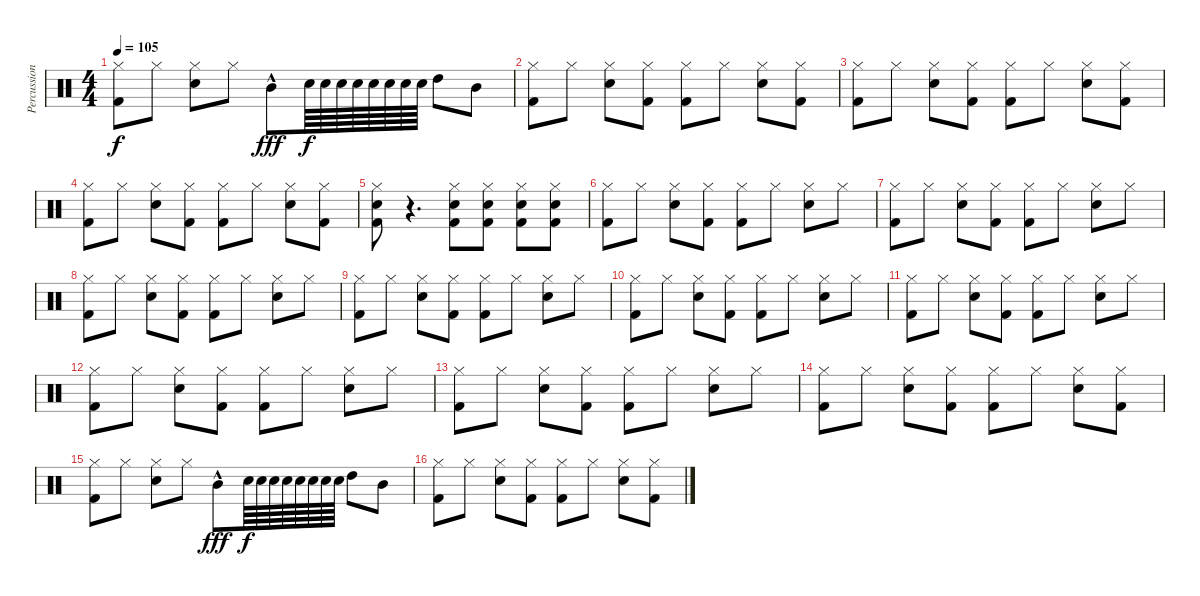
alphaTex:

\track ("Percussion" "Percussion") {instrument percussion}
\staff {score}
\articulation defaults
\ts (4 4)
\tempo 105
\clef neutral
\ks c
("Hi-Hat (closed)" "Kick (hit) 2").8{dy f} "Hi-Hat (closed)".8 ("Hi-Hat (closed)" "Snare (hit) 2").8 "Hi-Hat (closed)".8 "Mid Tom (hit)"{hac}.8{dy fff} "Snare (hit) 2".64{dy f} "Snare (hit) 2".64 "Snare (hit) 2".64 "Snare (hit) 2".64 "Snare (hit) 2".64 "Snare (hit) 2".64 "Snare (hit) 2".64 "Snare (hit) 2".64 "High Tom (hit)".8 "Mid Tom (hit)".8 |
("Hi-Hat (closed)" "Kick (hit) 2").8 "Hi-Hat (closed)".8 ("Hi-Hat (closed)" "Snare (hit) 2").8 ("Hi-Hat (closed)" "Kick (hit) 2").8 ("Hi-Hat (closed)" "Kick (hit) 2").8 "Hi-Hat (closed)".8 ("Hi-Hat (closed)" "Snare (hit) 2").8 ("Hi-Hat (closed)" "Kick (hit) 2").8 |
("Hi-Hat (closed)" "Kick (hit) 2").8 "Hi-Hat (closed)".8 ("Hi-Hat (closed)" "Snare (hit) 2").8 ("Hi-Hat (closed)" "Kick (hit) 2").8 ("Hi-Hat (closed)" "Kick (hit) 2").8 "Hi-Hat (closed)".8 ("Hi-Hat (closed)" "Snare (hit) 2").8 ("Hi-Hat (closed)" "Kick (hit) 2").8 |
("Hi-Hat (closed)" "Kick (hit) 2").8 "Hi-Hat (closed)".8 ("Hi-Hat (closed)" "Snare (hit) 2").8 ("Hi-Hat (closed)" "Kick (hit) 2").8 ("Hi-Hat (closed)" "Kick (hit) 2").8 "Hi-Hat (closed)".8 ("Hi-Hat (closed)" "Snare (hit) 2").8 ("Hi-Hat (closed)" "Kick (hit) 2").8 |
("Hi-Hat (closed)" "Kick (hit) 2" "Snare (hit) 2").8 r.4{d} ("Hi-Hat (closed)" "Kick (hit) 2" "Snare (hit) 2").8 ("Hi-Hat (closed)" "Kick (hit) 2" "Snare (hit) 2").8 ("Hi-Hat (closed)" "Kick (hit) 2" "Snare (hit) 2").8 ("Hi-Hat (closed)" "Kick (hit) 2" "Snare (hit) 2").8 |
("Hi-Hat (closed)" "Kick (hit) 2").8 "Hi-Hat (closed)".8 ("Hi-Hat (closed)" "Snare (hit) 2").8 ("Hi-Hat (closed)" "Kick (hit) 2").8 ("Hi-Hat (closed)" "Kick (hit) 2").8 "Hi-Hat (closed)".8 ("Hi-Hat (closed)" "Snare (hit) 2").8 "Hi-Hat (closed)".8 |
("Hi-Hat (closed)" "Kick (hit) 2").8 "Hi-Hat (closed)".8 ("Hi-Hat (closed)" "Snare (hit) 2").8 ("Hi-Hat (closed)" "Kick (hit) 2").8 ("Hi-Hat (closed)" "Kick (hit) 2").8 "Hi-Hat (closed)".8 ("Hi-Hat (closed)" "Snare (hit) 2").8 "Hi-Hat (closed)".8 |
("Hi-Hat (closed)" "Kick (hit) 2").8 "Hi-Hat (closed)".8 ("Hi-Hat (closed)" "Snare (hit) 2").8 ("Hi-Hat (closed)" "Kick (hit) 2").8 ("Hi-Hat (closed)" "Kick (hit) 2").8 "Hi-Hat (closed)".8 ("Hi-Hat (closed)" "Snare (hit) 2").8 "Hi-Hat (closed)".8 |
("Hi-Hat (closed)" "Kick (hit) 2").8 "Hi-Hat (closed)".8 ("Hi-Hat (closed)" "Snare (hit) 2").8 ("Hi-Hat (closed)" "Kick (hit) 2").8 ("Hi-Hat (closed)" "Kick (hit) 2").8 "Hi-Hat (closed)".8 ("Hi-Hat (closed)" "Snare (hit) 2").8 "Hi-Hat (closed)".8 |
("Hi-Hat (closed)" "Kick (hit) 2").8 "Hi-Hat (closed)".8 ("Hi-Hat (closed)" "Snare (hit) 2").8 ("Hi-Hat (closed)" "Kick (hit) 2").8 ("Hi-Hat (closed)" "Kick (hit) 2").8 "Hi-Hat (closed)".8 ("Hi-Hat (closed)" "Snare (hit) 2").8 "Hi-Hat (closed)".8 |
("Hi-Hat (closed)" "Kick (hit) 2").8 "Hi-Hat (closed)".8 ("Hi-Hat (closed)" "Snare (hit) 2").8 ("Hi-Hat (closed)" "Kick (hit) 2").8 ("Hi-Hat (closed)" "Kick (hit) 2").8 "Hi-Hat (closed)".8 ("Hi-Hat (closed)" "Snare (hit) 2").8 "Hi-Hat (closed)".8 |
("Hi-Hat (closed)" "Kick (hit) 2").8 "Hi-Hat (closed)".8 ("Hi-Hat (closed)" "Snare (hit) 2").8 ("Hi-Hat (closed)" "Kick (hit) 2").8 ("Hi-Hat (closed)" "Kick (hit) 2").8 "Hi-Hat (closed)".8 ("Hi-Hat (closed)" "Snare (hit) 2").8 "Hi-Hat (closed)".8 |
("Hi-Hat (closed)" "Kick (hit) 2").8 "Hi-Hat (closed)".8 ("Hi-Hat (closed)" "Snare (hit) 2").8 ("Hi-Hat (closed)" "Kick (hit) 2").8 ("Hi-Hat (closed)" "Kick (hit) 2").8 "Hi-Hat (closed)".8 ("Hi-Hat (closed)" "Snare (hit) 2").8 "Hi-Hat (closed)".8 |
("Hi-Hat (closed)" "Kick (hit) 2").8 "Hi-Hat (closed)".8 ("Hi-Hat (closed)" "Snare (hit) 2").8 ("Hi-Hat (closed)" "Kick (hit) 2").8 ("Hi-Hat (closed)" "Kick (hit) 2").8 "Hi-Hat (closed)".8 ("Hi-Hat (closed)" "Snare (hit) 2").8 ("Hi-Hat (closed)" "Kick (hit) 2").8 |
("Hi-Hat (closed)" "Kick (hit) 2").8 "Hi-Hat (closed)".8 ("Hi-Hat (closed)" "Snare (hit) 2").8 "Hi-Hat (closed)".8 "Mid Tom (hit)"{hac}.8{dy fff} "Snare (hit) 2".64{dy f} "Snare (hit) 2".64 "Snare (hit) 2".64 "Snare (hit) 2".64 "Snare (hit) 2".64 "Snare (hit) 2".64 "Snare (hit) 2".64 "Snare (hit) 2".64 "High Tom (hit)".8 "Mid Tom (hit)".8 |
("Hi-Hat (closed)" "Kick (hit) 2").8 "Hi-Hat (closed)".8 ("Hi-Hat (closed)" "Snare (hit) 2").8 ("Hi-Hat (closed)" "Kick (hit) 2").8 ("Hi-Hat (closed)" "Kick (hit) 2").8 "Hi-Hat (closed)".8 ("Hi-Hat (closed)" "Snare (hit) 2").8 ("Hi-Hat (closed)" "Kick (hit) 2").8
